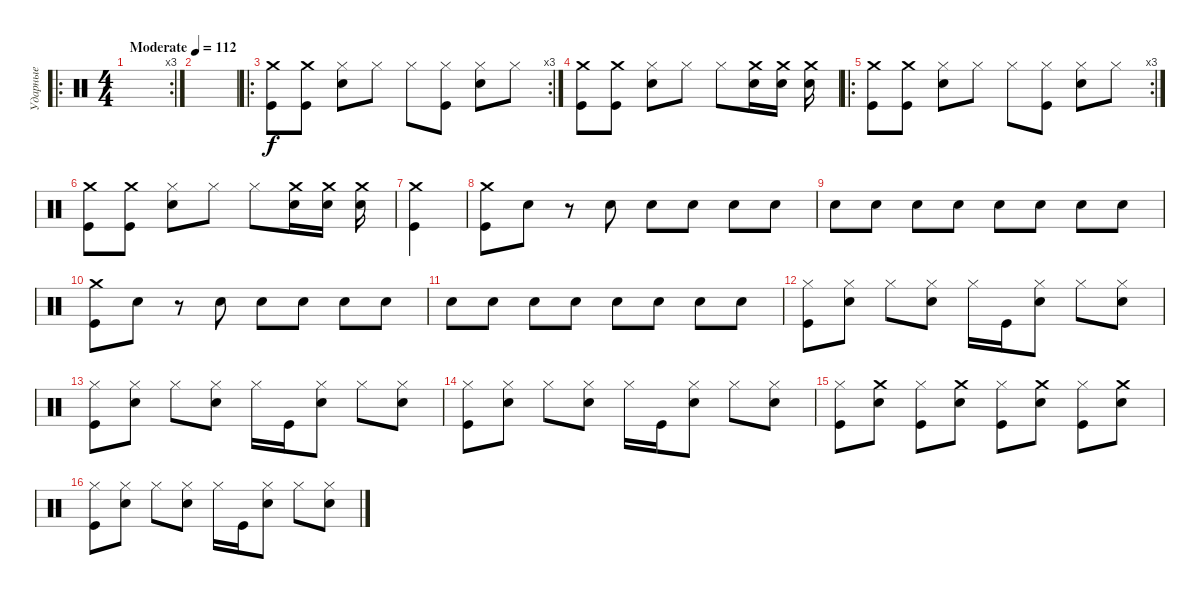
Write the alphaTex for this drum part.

\track ("Ударные" "Ударные") {instrument percussion}
\staff {score}
\articulation defaults
\ro
\rc 3
\ts (4 4)
\tempo (112 "Moderate")
\clef neutral
\ks c
|
|
\ro
\rc 3
("Crash medium (hit)" "Kick (hit)").8 ("Crash medium (hit)" "Kick (hit)").8 ("Hi-Hat (closed)" "Snare (hit) 2").8 "Hi-Hat (closed)".8 "Hi-Hat (closed)".8 ("Hi-Hat (closed)" "Kick (hit)").8 ("Hi-Hat (closed)" "Snare (hit) 2").8 "Hi-Hat (closed)".8 |
("Crash medium (hit)" "Kick (hit)").8 ("Crash medium (hit)" "Kick (hit)").8 ("Hi-Hat (closed)" "Snare (hit) 2").8 "Hi-Hat (closed)".8 "Hi-Hat (closed)".8 ("Crash medium (hit)" "Snare (hit) 2").16 ("Crash medium (hit)" "Snare (hit) 2").16 ("Crash medium (hit)" "Snare (hit) 2").16 |
\ro
\rc 3
("Crash medium (hit)" "Kick (hit)").8 ("Crash medium (hit)" "Kick (hit)").8 ("Hi-Hat (closed)" "Snare (hit) 2").8 "Hi-Hat (closed)".8 "Hi-Hat (closed)".8 ("Hi-Hat (closed)" "Kick (hit)").8 ("Hi-Hat (closed)" "Snare (hit) 2").8 "Hi-Hat (closed)".8 |
("Crash medium (hit)" "Kick (hit)").8 ("Crash medium (hit)" "Kick (hit)").8 ("Hi-Hat (closed)" "Snare (hit) 2").8 "Hi-Hat (closed)".8 "Hi-Hat (closed)".8 ("Crash medium (hit)" "Snare (hit) 2").16 ("Crash medium (hit)" "Snare (hit) 2").16 ("Crash medium (hit)" "Snare (hit) 2").16 |
("Crash medium (hit)" "Kick (hit)").4 |
("Crash medium (hit)" "Kick (hit)").8 "Snare (hit) 2".8 r.8 "Snare (hit) 2".8 "Snare (hit)".8 "Snare (hit) 2".8 "Snare (hit)".8 "Snare (hit) 2".8 |
"Snare (hit)".8 "Snare (hit) 2".8 "Snare (hit)".8 "Snare (hit) 2".8 "Snare (hit)".8 "Snare (hit) 2".8 "Snare (hit)".8 "Snare (hit) 2".8 |
("Crash medium (hit)" "Kick (hit)").8 "Snare (hit) 2".8 r.8 "Snare (hit) 2".8 "Snare (hit)".8 "Snare (hit) 2".8 "Snare (hit)".8 "Snare (hit) 2".8 |
"Snare (hit)".8 "Snare (hit) 2".8 "Snare (hit)".8 "Snare (hit) 2".8 "Snare (hit)".8 "Snare (hit) 2".8 "Snare (hit)".8 "Snare (hit) 2".8 |
("Hi-Hat (closed)" "Kick (hit)").8 ("Hi-Hat (closed)" "Snare (hit) 2").8 "Hi-Hat (closed)".8 ("Hi-Hat (closed)" "Snare (hit) 2").8 "Hi-Hat (closed)".16 "Kick (hit)".16 ("Hi-Hat (closed)" "Snare (hit) 2").8 "Hi-Hat (closed)".8 ("Hi-Hat (closed)" "Snare (hit) 2").8 |
("Hi-Hat (closed)" "Kick (hit)").8 ("Hi-Hat (closed)" "Snare (hit) 2").8 "Hi-Hat (closed)".8 ("Hi-Hat (closed)" "Snare (hit) 2").8 "Hi-Hat (closed)".16 "Kick (hit)".16 ("Hi-Hat (closed)" "Snare (hit) 2").8 "Hi-Hat (closed)".8 ("Hi-Hat (closed)" "Snare (hit) 2").8 |
("Hi-Hat (closed)" "Kick (hit)").8 ("Hi-Hat (closed)" "Snare (hit) 2").8 "Hi-Hat (closed)".8 ("Hi-Hat (closed)" "Snare (hit) 2").8 "Hi-Hat (closed)".16 "Kick (hit)".16 ("Hi-Hat (closed)" "Snare (hit) 2").8 "Hi-Hat (closed)".8 ("Hi-Hat (closed)" "Snare (hit) 2").8 |
("Hi-Hat (closed)" "Kick (hit)").8 ("Crash medium (hit)" "Snare (hit) 2").8 ("Hi-Hat (closed)" "Kick (hit)").8 ("Crash medium (hit)" "Snare (hit) 2").8 ("Hi-Hat (closed)" "Kick (hit)").8 ("Crash medium (hit)" "Snare (hit) 2").8 ("Hi-Hat (closed)" "Kick (hit)").8 ("Crash medium (hit)" "Snare (hit) 2").8 |
("Hi-Hat (closed)" "Kick (hit)").8 ("Hi-Hat (closed)" "Snare (hit) 2").8 "Hi-Hat (closed)".8 ("Hi-Hat (closed)" "Snare (hit) 2").8 "Hi-Hat (closed)".16 "Kick (hit)".16 ("Hi-Hat (closed)" "Snare (hit) 2").8 "Hi-Hat (closed)".8 ("Hi-Hat (closed)" "Snare (hit) 2").8
